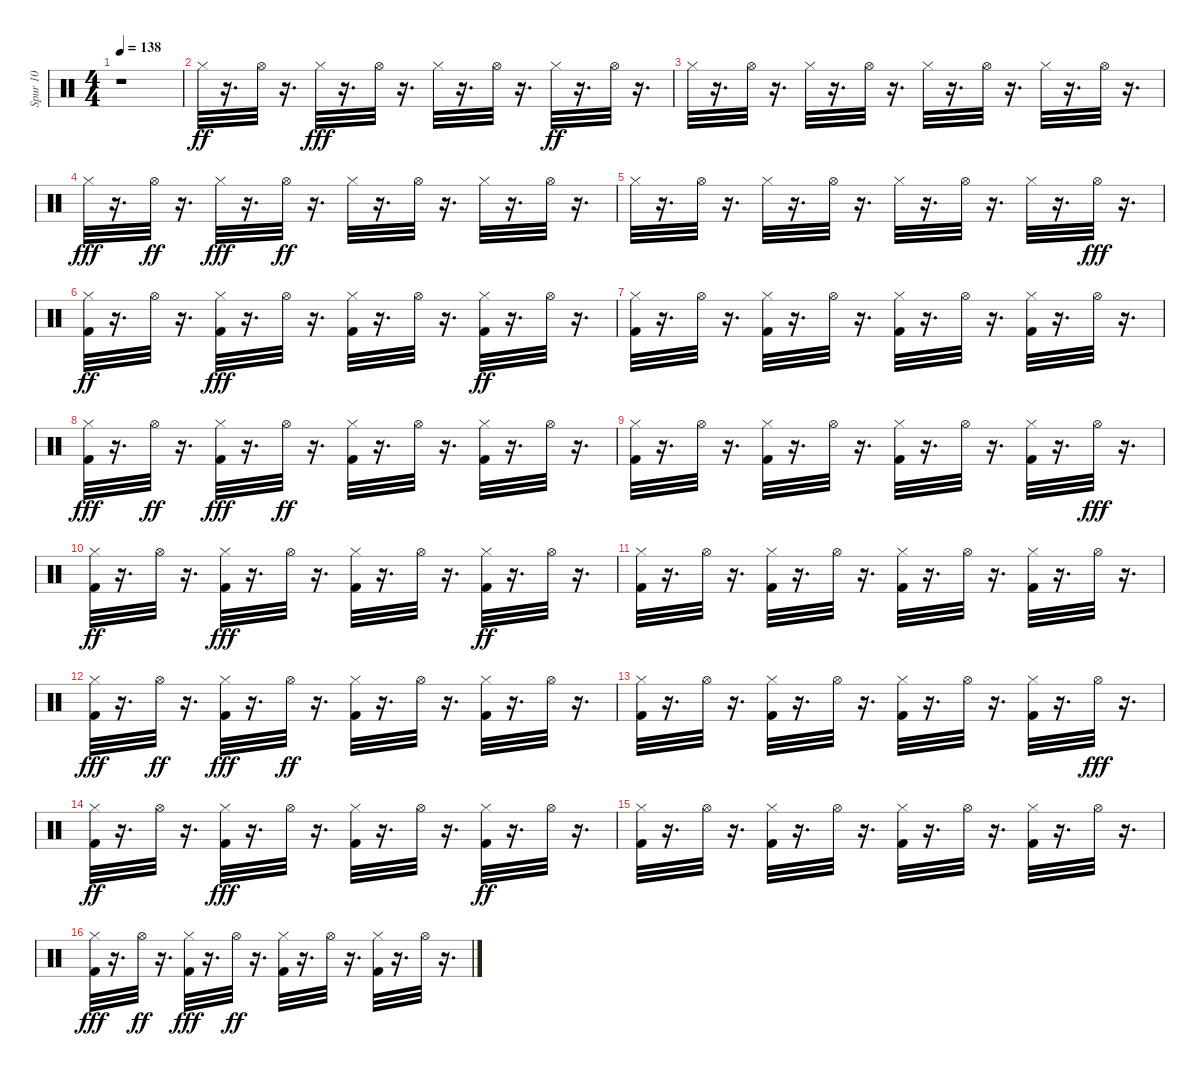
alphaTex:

\track ("Spur 10" "Spur 10") {instrument percussion}
\staff {score}
\articulation defaults
\ts (4 4)
\tempo 138
\clef neutral
\ks c
r.1{dy ff} |
"Hi-Hat (closed)".32 r.16{d} "Hi-Hat (open)".32 r.16{d} "Hi-Hat (closed)".32{dy fff} r.16{d} "Hi-Hat (open)".32 r.16{d} "Hi-Hat (closed)".32 r.16{d} "Hi-Hat (open)".32 r.16{d} "Hi-Hat (closed)".32{dy ff} r.16{d} "Hi-Hat (open)".32 r.16{d} |
"Hi-Hat (closed)".32 r.16{d} "Hi-Hat (open)".32 r.16{d} "Hi-Hat (closed)".32 r.16{d} "Hi-Hat (open)".32 r.16{d} "Hi-Hat (closed)".32 r.16{d} "Hi-Hat (open)".32 r.16{d} "Hi-Hat (closed)".32 r.16{d} "Hi-Hat (open)".32 r.16{d} |
"Hi-Hat (closed)".32{dy fff} r.16{d} "Hi-Hat (open)".32{dy ff} r.16{d} "Hi-Hat (closed)".32{dy fff} r.16{d} "Hi-Hat (open)".32{dy ff} r.16{d} "Hi-Hat (closed)".32 r.16{d} "Hi-Hat (open)".32 r.16{d} "Hi-Hat (closed)".32 r.16{d} "Hi-Hat (open)".32 r.16{d} |
"Hi-Hat (closed)".32 r.16{d} "Hi-Hat (open)".32 r.16{d} "Hi-Hat (closed)".32 r.16{d} "Hi-Hat (open)".32 r.16{d} "Hi-Hat (closed)".32 r.16{d} "Hi-Hat (open)".32 r.16{d} "Hi-Hat (closed)".32 r.16{d} "Hi-Hat (open)".32{dy fff} r.16{d} |
("Kick (hit) 2" "Hi-Hat (closed)").32{dy ff} r.16{d} "Hi-Hat (open)".32 r.16{d} ("Kick (hit) 2" "Hi-Hat (closed)").32{dy fff} r.16{d} "Hi-Hat (open)".32 r.16{d} ("Kick (hit) 2" "Hi-Hat (closed)").32 r.16{d} "Hi-Hat (open)".32 r.16{d} ("Kick (hit) 2" "Hi-Hat (closed)").32{dy ff} r.16{d} "Hi-Hat (open)".32 r.16{d} |
("Kick (hit) 2" "Hi-Hat (closed)").32 r.16{d} "Hi-Hat (open)".32 r.16{d} ("Kick (hit) 2" "Hi-Hat (closed)").32 r.16{d} "Hi-Hat (open)".32 r.16{d} ("Kick (hit) 2" "Hi-Hat (closed)").32 r.16{d} "Hi-Hat (open)".32 r.16{d} ("Kick (hit) 2" "Hi-Hat (closed)").32 r.16{d} "Hi-Hat (open)".32 r.16{d} |
("Kick (hit) 2" "Hi-Hat (closed)").32{dy fff} r.16{d} "Hi-Hat (open)".32{dy ff} r.16{d} ("Kick (hit) 2" "Hi-Hat (closed)").32{dy fff} r.16{d} "Hi-Hat (open)".32{dy ff} r.16{d} ("Kick (hit) 2" "Hi-Hat (closed)").32 r.16{d} "Hi-Hat (open)".32 r.16{d} ("Kick (hit) 2" "Hi-Hat (closed)").32 r.16{d} "Hi-Hat (open)".32 r.16{d} |
("Kick (hit) 2" "Hi-Hat (closed)").32 r.16{d} "Hi-Hat (open)".32 r.16{d} ("Kick (hit) 2" "Hi-Hat (closed)").32 r.16{d} "Hi-Hat (open)".32 r.16{d} ("Kick (hit) 2" "Hi-Hat (closed)").32 r.16{d} "Hi-Hat (open)".32 r.16{d} ("Kick (hit) 2" "Hi-Hat (closed)").32 r.16{d} "Hi-Hat (open)".32{dy fff} r.16{d} |
("Kick (hit) 2" "Hi-Hat (closed)").32{dy ff} r.16{d} "Hi-Hat (open)".32 r.16{d} ("Kick (hit) 2" "Hi-Hat (closed)").32{dy fff} r.16{d} "Hi-Hat (open)".32 r.16{d} ("Kick (hit) 2" "Hi-Hat (closed)").32 r.16{d} "Hi-Hat (open)".32 r.16{d} ("Kick (hit) 2" "Hi-Hat (closed)").32{dy ff} r.16{d} "Hi-Hat (open)".32 r.16{d} |
("Kick (hit) 2" "Hi-Hat (closed)").32 r.16{d} "Hi-Hat (open)".32 r.16{d} ("Kick (hit) 2" "Hi-Hat (closed)").32 r.16{d} "Hi-Hat (open)".32 r.16{d} ("Kick (hit) 2" "Hi-Hat (closed)").32 r.16{d} "Hi-Hat (open)".32 r.16{d} ("Kick (hit) 2" "Hi-Hat (closed)").32 r.16{d} "Hi-Hat (open)".32 r.16{d} |
("Kick (hit) 2" "Hi-Hat (closed)").32{dy fff} r.16{d} "Hi-Hat (open)".32{dy ff} r.16{d} ("Kick (hit) 2" "Hi-Hat (closed)").32{dy fff} r.16{d} "Hi-Hat (open)".32{dy ff} r.16{d} ("Kick (hit) 2" "Hi-Hat (closed)").32 r.16{d} "Hi-Hat (open)".32 r.16{d} ("Kick (hit) 2" "Hi-Hat (closed)").32 r.16{d} "Hi-Hat (open)".32 r.16{d} |
("Kick (hit) 2" "Hi-Hat (closed)").32 r.16{d} "Hi-Hat (open)".32 r.16{d} ("Kick (hit) 2" "Hi-Hat (closed)").32 r.16{d} "Hi-Hat (open)".32 r.16{d} ("Kick (hit) 2" "Hi-Hat (closed)").32 r.16{d} "Hi-Hat (open)".32 r.16{d} ("Kick (hit) 2" "Hi-Hat (closed)").32 r.16{d} "Hi-Hat (open)".32{dy fff} r.16{d} |
("Kick (hit) 2" "Hi-Hat (closed)").32{dy ff} r.16{d} "Hi-Hat (open)".32 r.16{d} ("Kick (hit) 2" "Hi-Hat (closed)").32{dy fff} r.16{d} "Hi-Hat (open)".32 r.16{d} ("Kick (hit) 2" "Hi-Hat (closed)").32 r.16{d} "Hi-Hat (open)".32 r.16{d} ("Kick (hit) 2" "Hi-Hat (closed)").32{dy ff} r.16{d} "Hi-Hat (open)".32 r.16{d} |
("Kick (hit) 2" "Hi-Hat (closed)").32 r.16{d} "Hi-Hat (open)".32 r.16{d} ("Kick (hit) 2" "Hi-Hat (closed)").32 r.16{d} "Hi-Hat (open)".32 r.16{d} ("Kick (hit) 2" "Hi-Hat (closed)").32 r.16{d} "Hi-Hat (open)".32 r.16{d} ("Kick (hit) 2" "Hi-Hat (closed)").32 r.16{d} "Hi-Hat (open)".32 r.16{d} |
("Kick (hit) 2" "Hi-Hat (closed)").32{dy fff} r.16{d} "Hi-Hat (open)".32{dy ff} r.16{d} ("Kick (hit) 2" "Hi-Hat (closed)").32{dy fff} r.16{d} "Hi-Hat (open)".32{dy ff} r.16{d} ("Kick (hit) 2" "Hi-Hat (closed)").32 r.16{d} "Hi-Hat (open)".32 r.16{d} ("Kick (hit) 2" "Hi-Hat (closed)").32 r.16{d} "Hi-Hat (open)".32 r.16{d}
